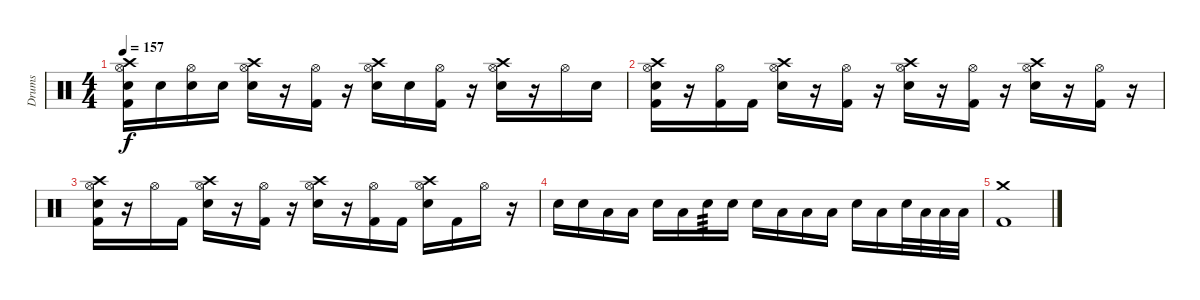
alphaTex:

\track ("Drums" "Drums") {instrument percussion}
\staff {score}
\articulation defaults
\ts (4 4)
\tempo 157
\clef neutral
\ks c
("Hi-Hat (open)" "Crash high (hit)" "Electric Snare (hit)" "Kick (hit) 2").16{dy f} "Electric Snare (hit)".16 ("Hi-Hat (open)" "Electric Snare (hit)").16 "Electric Snare (hit)".16 ("Hi-Hat (open)" "Crash high (hit)" "Electric Snare (hit)").16 r.16 ("Hi-Hat (open)" "Kick (hit) 2").16 r.16 ("Hi-Hat (open)" "Crash high (hit)" "Electric Snare (hit)").16 "Electric Snare (hit)".16 ("Hi-Hat (open)" "Kick (hit) 2").16 r.16 ("Hi-Hat (open)" "Crash high (hit)" "Electric Snare (hit)").16 r.16 "Hi-Hat (open)".16 "Electric Snare (hit)".16 |
("Hi-Hat (open)" "Crash high (hit)" "Electric Snare (hit)" "Kick (hit) 2").16 r.16 ("Hi-Hat (open)" "Kick (hit) 2").16 "Kick (hit) 2".16 ("Hi-Hat (open)" "Crash high (hit)" "Electric Snare (hit)").16 r.16 ("Hi-Hat (open)" "Kick (hit) 2").16 r.16 ("Hi-Hat (open)" "Crash high (hit)" "Electric Snare (hit)").16 r.16 ("Hi-Hat (open)" "Kick (hit) 2").16 r.16 ("Hi-Hat (open)" "Crash high (hit)" "Electric Snare (hit)").16 r.16 ("Hi-Hat (open)" "Kick (hit) 2").16 r.16 |
("Hi-Hat (open)" "Crash high (hit)" "Electric Snare (hit)" "Kick (hit) 2").16 r.16 "Hi-Hat (open)".16 "Kick (hit) 2".16 ("Hi-Hat (open)" "Crash high (hit)" "Electric Snare (hit)").16 r.16 ("Hi-Hat (open)" "Kick (hit) 2").16 r.16 ("Hi-Hat (open)" "Crash high (hit)" "Electric Snare (hit)").16 r.16 ("Hi-Hat (open)" "Kick (hit) 2").16 "Kick (hit) 2".16 ("Hi-Hat (open)" "Crash high (hit)" "Electric Snare (hit)").16 "Kick (hit) 2".16 "Hi-Hat (open)".16 r.16 |
"Electric Snare (hit)".16 "Electric Snare (hit)".16 "Low Tom (hit)".16 "Low Tom (hit)".16 "Electric Snare (hit)".16 "Low Tom (hit)".16 "Electric Snare (hit)".16{tp 3} "Electric Snare (hit)".16 "Electric Snare (hit)".16 "Low Tom (hit)".16 "Low Tom (hit)".16 "Low Tom (hit)".16 "Electric Snare (hit)".16 "Low Tom (hit)".16 "Electric Snare (hit)".32 "Low Tom (hit)".32 "Low Tom (hit)".32 "Low Tom (hit)".32 |
("Crash medium (hit)" "Kick (hit) 2").1
